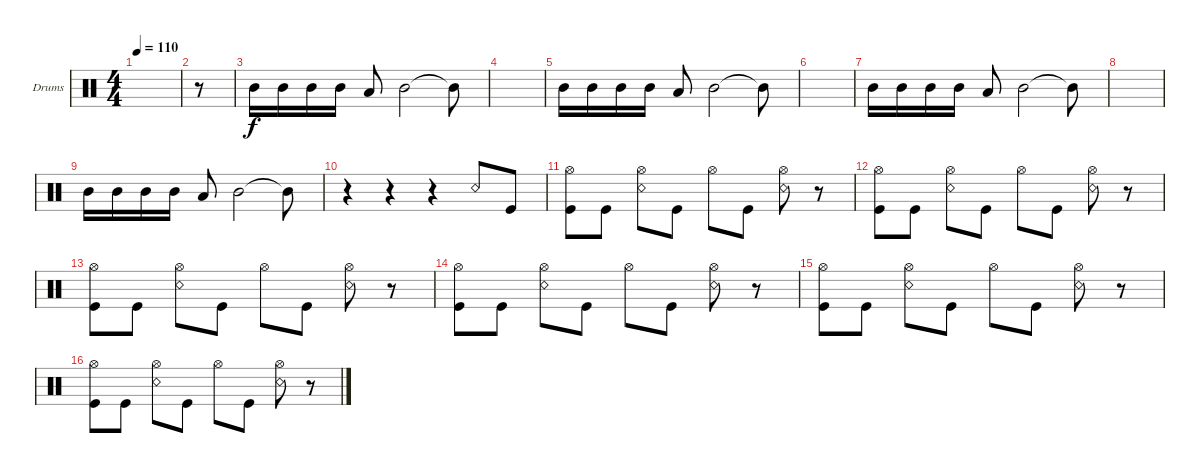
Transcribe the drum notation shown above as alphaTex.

\defaultSystemsLayout 4
\bracketExtendMode groupsimilarinstruments
\firstSystemTrackNameOrientation horizontal
\otherSystemsTrackNameOrientation horizontal
\track ("Drumkit" "Drums") {instrument percussion}
\staff {score}
\articulation defaults
\ts (4 4)
\tempo 110
\clef neutral
\scale
0.333333
\ks c
|
\scale
0.333333 r.8 |
\scale
0.333333 "Mid Tom (hit)".16 "Mid Tom (hit)".16 "Mid Tom (hit)".16 "Mid Tom (hit)".16 "Low Tom (hit)".8 "Mid Tom (hit)".2 "Mid Tom (hit)"{t}.8 |
\scale
0.333333 |
\scale
0.333333 "Mid Tom (hit)".16 "Mid Tom (hit)".16 "Mid Tom (hit)".16 "Mid Tom (hit)".16 "Low Tom (hit)".8 "Mid Tom (hit)".2 "Mid Tom (hit)"{t}.8 |
\scale
0.333333 |
\scale
0.333333 "Mid Tom (hit)".16 "Mid Tom (hit)".16 "Mid Tom (hit)".16 "Mid Tom (hit)".16 "Low Tom (hit)".8 "Mid Tom (hit)".2 "Mid Tom (hit)"{t}.8 |
\scale
0.333333 |
\scale
0.333333 "Mid Tom (hit)".16 "Mid Tom (hit)".16 "Mid Tom (hit)".16 "Mid Tom (hit)".16 "Low Tom (hit)".8 "Mid Tom (hit)".2 "Mid Tom (hit)"{t}.8 |
\scale
0.333333 r.4 r.4 r.4 "Snare (rim shot)".8 "Kick (hit)".8 |
\scale
0.333333 ("Kick (hit)" "Hi-Hat (open)").8 "Kick (hit)".8 ("Hi-Hat (open)" "Snare (rim shot)").8 "Kick (hit)".8 "Hi-Hat (open)".8 "Kick (hit)".8 ("Snare (rim shot)" "Hi-Hat (open)").8 r.8 |
\scale
0.333333 ("Kick (hit)" "Hi-Hat (open)").8 "Kick (hit)".8 ("Hi-Hat (open)" "Snare (rim shot)").8 "Kick (hit)".8 "Hi-Hat (open)".8 "Kick (hit)".8 ("Snare (rim shot)" "Hi-Hat (open)").8 r.8 |
\scale
0.333333 ("Kick (hit)" "Hi-Hat (open)").8 "Kick (hit)".8 ("Hi-Hat (open)" "Snare (rim shot)").8 "Kick (hit)".8 "Hi-Hat (open)".8 "Kick (hit)".8 ("Snare (rim shot)" "Hi-Hat (open)").8 r.8 |
\scale
0.333333 ("Kick (hit)" "Hi-Hat (open)").8 "Kick (hit)".8 ("Hi-Hat (open)" "Snare (rim shot)").8 "Kick (hit)".8 "Hi-Hat (open)".8 "Kick (hit)".8 ("Snare (rim shot)" "Hi-Hat (open)").8 r.8 |
\scale
0.333333 ("Kick (hit)" "Hi-Hat (open)").8 "Kick (hit)".8 ("Hi-Hat (open)" "Snare (rim shot)").8 "Kick (hit)".8 "Hi-Hat (open)".8 "Kick (hit)".8 ("Snare (rim shot)" "Hi-Hat (open)").8 r.8 |
\scale
0.333333 ("Kick (hit)" "Hi-Hat (open)").8 "Kick (hit)".8 ("Hi-Hat (open)" "Snare (rim shot)").8 "Kick (hit)".8 "Hi-Hat (open)".8 "Kick (hit)".8 ("Snare (rim shot)" "Hi-Hat (open)").8 r.8
